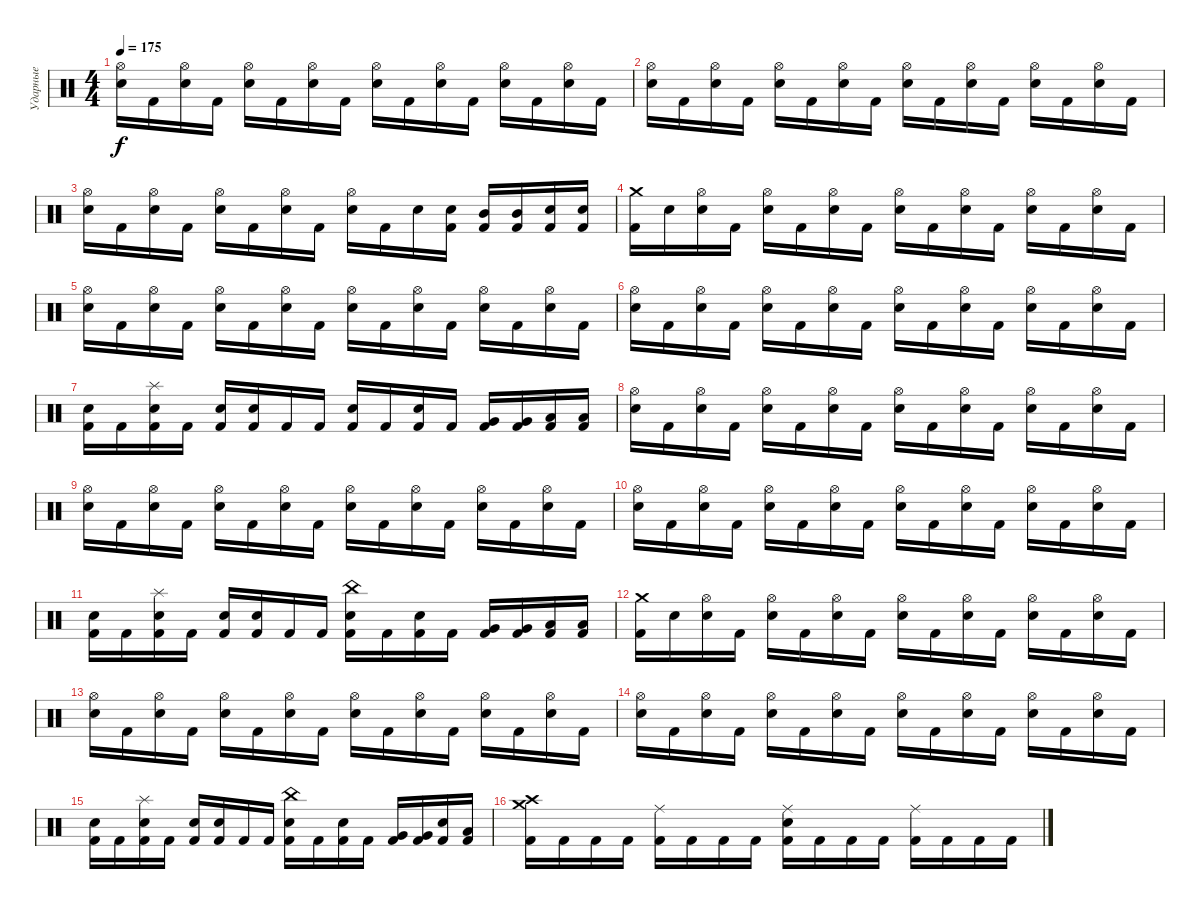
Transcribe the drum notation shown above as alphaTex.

\track ("Ударные" "Ударные") {instrument percussion}
\staff {score}
\articulation defaults
\ts (4 4)
\tempo 175
\clef neutral
\ks c
("Electric Snare (hit)" "Hi-Hat (open)").16{dy f} "Kick (hit) 2".16 ("Electric Snare (hit)" "Hi-Hat (open)").16 "Kick (hit) 2".16 ("Electric Snare (hit)" "Hi-Hat (open)").16 "Kick (hit) 2".16 ("Electric Snare (hit)" "Hi-Hat (open)").16 "Kick (hit) 2".16 ("Electric Snare (hit)" "Hi-Hat (open)").16 "Kick (hit) 2".16 ("Electric Snare (hit)" "Hi-Hat (open)").16 "Kick (hit) 2".16 ("Electric Snare (hit)" "Hi-Hat (open)").16 "Kick (hit) 2".16 ("Electric Snare (hit)" "Hi-Hat (open)").16 "Kick (hit) 2".16 |
("Electric Snare (hit)" "Hi-Hat (open)").16 "Kick (hit) 2".16 ("Electric Snare (hit)" "Hi-Hat (open)").16 "Kick (hit) 2".16 ("Electric Snare (hit)" "Hi-Hat (open)").16 "Kick (hit) 2".16 ("Electric Snare (hit)" "Hi-Hat (open)").16 "Kick (hit) 2".16 ("Electric Snare (hit)" "Hi-Hat (open)").16 "Kick (hit) 2".16 ("Electric Snare (hit)" "Hi-Hat (open)").16 "Kick (hit) 2".16 ("Electric Snare (hit)" "Hi-Hat (open)").16 "Kick (hit) 2".16 ("Electric Snare (hit)" "Hi-Hat (open)").16 "Kick (hit) 2".16 |
("Electric Snare (hit)" "Hi-Hat (open)").16 "Kick (hit) 2".16 ("Electric Snare (hit)" "Hi-Hat (open)").16 "Kick (hit) 2".16 ("Electric Snare (hit)" "Hi-Hat (open)").16 "Kick (hit) 2".16 ("Electric Snare (hit)" "Hi-Hat (open)").16 "Kick (hit) 2".16 ("Electric Snare (hit)" "Hi-Hat (open)").16 "Kick (hit) 2".16 "Electric Snare (hit)".16 ("Electric Snare (hit)" "Kick (hit) 2").16 ("Mid Tom (hit)" "Kick (hit) 2").16 ("Mid Tom (hit)" "Kick (hit) 2").16 ("Electric Snare (hit)" "Kick (hit) 2").16 ("Electric Snare (hit)" "Kick (hit) 2").16 |
("Crash medium (hit)" "Kick (hit) 2").16 "Snare (hit)".16 ("Electric Snare (hit)" "Hi-Hat (open)").16 "Kick (hit) 2".16 ("Electric Snare (hit)" "Hi-Hat (open)").16 "Kick (hit) 2".16 ("Electric Snare (hit)" "Hi-Hat (open)").16 "Kick (hit) 2".16 ("Electric Snare (hit)" "Hi-Hat (open)").16 "Kick (hit) 2".16 ("Electric Snare (hit)" "Hi-Hat (open)").16 "Kick (hit) 2".16 ("Electric Snare (hit)" "Hi-Hat (open)").16 "Kick (hit) 2".16 ("Electric Snare (hit)" "Hi-Hat (open)").16 "Kick (hit) 2".16 |
("Electric Snare (hit)" "Hi-Hat (open)").16 "Kick (hit) 2".16 ("Electric Snare (hit)" "Hi-Hat (open)").16 "Kick (hit) 2".16 ("Electric Snare (hit)" "Hi-Hat (open)").16 "Kick (hit) 2".16 ("Electric Snare (hit)" "Hi-Hat (open)").16 "Kick (hit) 2".16 ("Electric Snare (hit)" "Hi-Hat (open)").16 "Kick (hit) 2".16 ("Electric Snare (hit)" "Hi-Hat (open)").16 "Kick (hit) 2".16 ("Electric Snare (hit)" "Hi-Hat (open)").16 "Kick (hit) 2".16 ("Electric Snare (hit)" "Hi-Hat (open)").16 "Kick (hit) 2".16 |
("Electric Snare (hit)" "Hi-Hat (open)").16 "Kick (hit) 2".16 ("Electric Snare (hit)" "Hi-Hat (open)").16 "Kick (hit) 2".16 ("Electric Snare (hit)" "Hi-Hat (open)").16 "Kick (hit) 2".16 ("Electric Snare (hit)" "Hi-Hat (open)").16 "Kick (hit) 2".16 ("Electric Snare (hit)" "Hi-Hat (open)").16 "Kick (hit) 2".16 ("Electric Snare (hit)" "Hi-Hat (open)").16 "Kick (hit) 2".16 ("Electric Snare (hit)" "Hi-Hat (open)").16 "Kick (hit) 2".16 ("Electric Snare (hit)" "Hi-Hat (open)").16 "Kick (hit) 2".16 |
("Electric Snare (hit)" "Kick (hit) 2").16 "Kick (hit) 2".16 ("Electric Snare (hit)" "Splash (hit)" "Kick (hit) 2").16 "Kick (hit) 2".16 ("Electric Snare (hit)" "Kick (hit) 2").16 ("Electric Snare (hit)" "Kick (hit) 2").16 "Kick (hit) 2".16 "Kick (hit) 2".16 ("Electric Snare (hit)" "Kick (hit) 2").16 "Kick (hit) 2".16 ("Electric Snare (hit)" "Kick (hit) 2").16 "Kick (hit) 2".16 ("Very Low Tom (hit)" "Kick (hit) 2").16 ("Very Low Tom (hit)" "Kick (hit) 2").16 ("Low Floor Tom (hit)" "Kick (hit) 2").16 ("Low Floor Tom (hit)" "Kick (hit) 2").16 |
("Electric Snare (hit)" "Hi-Hat (open)").16 "Kick (hit) 2".16 ("Electric Snare (hit)" "Hi-Hat (open)").16 "Kick (hit) 2".16 ("Electric Snare (hit)" "Hi-Hat (open)").16 "Kick (hit) 2".16 ("Electric Snare (hit)" "Hi-Hat (open)").16 "Kick (hit) 2".16 ("Electric Snare (hit)" "Hi-Hat (open)").16 "Kick (hit) 2".16 ("Electric Snare (hit)" "Hi-Hat (open)").16 "Kick (hit) 2".16 ("Electric Snare (hit)" "Hi-Hat (open)").16 "Kick (hit) 2".16 ("Electric Snare (hit)" "Hi-Hat (open)").16 "Kick (hit) 2".16 |
("Electric Snare (hit)" "Hi-Hat (open)").16 "Kick (hit) 2".16 ("Electric Snare (hit)" "Hi-Hat (open)").16 "Kick (hit) 2".16 ("Electric Snare (hit)" "Hi-Hat (open)").16 "Kick (hit) 2".16 ("Electric Snare (hit)" "Hi-Hat (open)").16 "Kick (hit) 2".16 ("Electric Snare (hit)" "Hi-Hat (open)").16 "Kick (hit) 2".16 ("Electric Snare (hit)" "Hi-Hat (open)").16 "Kick (hit) 2".16 ("Electric Snare (hit)" "Hi-Hat (open)").16 "Kick (hit) 2".16 ("Electric Snare (hit)" "Hi-Hat (open)").16 "Kick (hit) 2".16 |
("Electric Snare (hit)" "Hi-Hat (open)").16 "Kick (hit) 2".16 ("Electric Snare (hit)" "Hi-Hat (open)").16 "Kick (hit) 2".16 ("Electric Snare (hit)" "Hi-Hat (open)").16 "Kick (hit) 2".16 ("Electric Snare (hit)" "Hi-Hat (open)").16 "Kick (hit) 2".16 ("Electric Snare (hit)" "Hi-Hat (open)").16 "Kick (hit) 2".16 ("Electric Snare (hit)" "Hi-Hat (open)").16 "Kick (hit) 2".16 ("Electric Snare (hit)" "Hi-Hat (open)").16 "Kick (hit) 2".16 ("Electric Snare (hit)" "Hi-Hat (open)").16 "Kick (hit) 2".16 |
("Electric Snare (hit)" "Kick (hit) 2").16 "Kick (hit) 2".16 ("Electric Snare (hit)" "Splash (hit)" "Kick (hit) 2").16 "Kick (hit) 2".16 ("Electric Snare (hit)" "Kick (hit) 2").16 ("Electric Snare (hit)" "Kick (hit) 2").16 "Kick (hit) 2".16 "Kick (hit) 2".16 ("Electric Snare (hit)" "China (hit)" "Kick (hit) 2").16 "Kick (hit) 2".16 ("Electric Snare (hit)" "Kick (hit) 2").16 "Kick (hit) 2".16 ("Very Low Tom (hit)" "Kick (hit) 2").16 ("Very Low Tom (hit)" "Kick (hit) 2").16 ("Low Floor Tom (hit)" "Kick (hit) 2").16 ("Low Floor Tom (hit)" "Kick (hit) 2").16 |
("Crash medium (hit)" "Kick (hit) 2").16 "Snare (hit)".16 ("Electric Snare (hit)" "Hi-Hat (open)").16 "Kick (hit) 2".16 ("Electric Snare (hit)" "Hi-Hat (open)").16 "Kick (hit) 2".16 ("Electric Snare (hit)" "Hi-Hat (open)").16 "Kick (hit) 2".16 ("Electric Snare (hit)" "Hi-Hat (open)").16 "Kick (hit) 2".16 ("Electric Snare (hit)" "Hi-Hat (open)").16 "Kick (hit) 2".16 ("Electric Snare (hit)" "Hi-Hat (open)").16 "Kick (hit) 2".16 ("Electric Snare (hit)" "Hi-Hat (open)").16 "Kick (hit) 2".16 |
("Electric Snare (hit)" "Hi-Hat (open)").16 "Kick (hit) 2".16 ("Electric Snare (hit)" "Hi-Hat (open)").16 "Kick (hit) 2".16 ("Electric Snare (hit)" "Hi-Hat (open)").16 "Kick (hit) 2".16 ("Electric Snare (hit)" "Hi-Hat (open)").16 "Kick (hit) 2".16 ("Electric Snare (hit)" "Hi-Hat (open)").16 "Kick (hit) 2".16 ("Electric Snare (hit)" "Hi-Hat (open)").16 "Kick (hit) 2".16 ("Electric Snare (hit)" "Hi-Hat (open)").16 "Kick (hit) 2".16 ("Electric Snare (hit)" "Hi-Hat (open)").16 "Kick (hit) 2".16 |
("Electric Snare (hit)" "Hi-Hat (open)").16 "Kick (hit) 2".16 ("Electric Snare (hit)" "Hi-Hat (open)").16 "Kick (hit) 2".16 ("Electric Snare (hit)" "Hi-Hat (open)").16 "Kick (hit) 2".16 ("Electric Snare (hit)" "Hi-Hat (open)").16 "Kick (hit) 2".16 ("Electric Snare (hit)" "Hi-Hat (open)").16 "Kick (hit) 2".16 ("Electric Snare (hit)" "Hi-Hat (open)").16 "Kick (hit) 2".16 ("Electric Snare (hit)" "Hi-Hat (open)").16 "Kick (hit) 2".16 ("Electric Snare (hit)" "Hi-Hat (open)").16 "Kick (hit) 2".16 |
("Electric Snare (hit)" "Kick (hit) 2").16 "Kick (hit) 2".16 ("Electric Snare (hit)" "Splash (hit)" "Kick (hit) 2").16 "Kick (hit) 2".16 ("Electric Snare (hit)" "Kick (hit) 2").16 ("Electric Snare (hit)" "Kick (hit) 2").16 "Kick (hit) 2".16 "Kick (hit) 2".16 ("Electric Snare (hit)" "China (hit)" "Kick (hit) 2").16 "Kick (hit) 2".16 ("Electric Snare (hit)" "Kick (hit) 2").16 "Kick (hit) 2".16 ("Very Low Tom (hit)" "Kick (hit) 2").16 ("Very Low Tom (hit)" "Kick (hit) 2").16 ("Electric Snare (hit)" "Kick (hit) 2").16 ("Low Floor Tom (hit)" "Kick (hit) 2").16 |
("Crash medium (hit)" "Crash high (hit)" "Kick (hit) 2").16 "Kick (hit) 2".16 "Kick (hit) 2".16 "Kick (hit) 2".16 ("Ride (middle)" "Kick (hit) 2").16 "Kick (hit) 2".16 "Kick (hit) 2".16 "Kick (hit) 2".16 ("Ride (middle)" "Electric Snare (hit)" "Kick (hit) 2").16 "Kick (hit) 2".16 "Kick (hit) 2".16 "Kick (hit) 2".16 ("Ride (middle)" "Kick (hit) 2").16 "Kick (hit) 2".16 "Kick (hit) 2".16 "Kick (hit) 2".16
